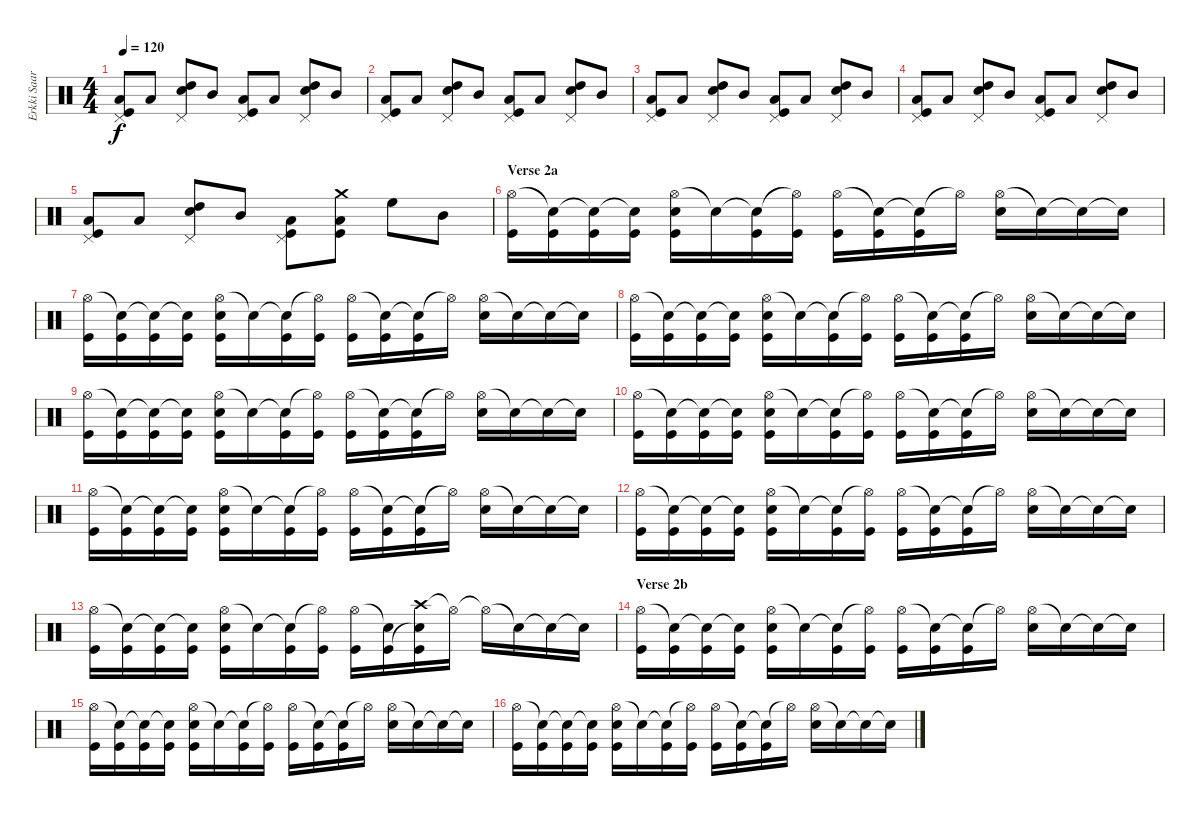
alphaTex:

\track ("Erkki Saarinen" "Erkki Saar") {instrument percussion}
\staff {score}
\articulation defaults
\ts (4 4)
\tempo 120
\clef neutral
\ks c
("Pedal Hi-Hat (hit)" "Low Tom (hit)" "Kick (hit)").8{dy f volume 10} "Low Tom (hit)".8 ("Pedal Hi-Hat (hit)" "High Tom (hit)" "Snare (hit) 2").8 "Mid Tom (hit)".8 ("Pedal Hi-Hat (hit)" "Low Tom (hit)" "Kick (hit)").8 "Low Tom (hit)".8 ("Pedal Hi-Hat (hit)" "High Tom (hit)" "Snare (hit) 2").8 "Mid Tom (hit)".8 |
("Pedal Hi-Hat (hit)" "Low Tom (hit)" "Kick (hit)").8{volume 10} "Low Tom (hit)".8 ("Pedal Hi-Hat (hit)" "High Tom (hit)" "Snare (hit) 2").8 "Mid Tom (hit)".8 ("Pedal Hi-Hat (hit)" "Low Tom (hit)" "Kick (hit)").8 "Low Tom (hit)".8 ("Pedal Hi-Hat (hit)" "High Tom (hit)" "Snare (hit) 2").8 "Mid Tom (hit)".8 |
("Pedal Hi-Hat (hit)" "Low Tom (hit)" "Kick (hit)").8{volume 10} "Low Tom (hit)".8 ("Pedal Hi-Hat (hit)" "High Tom (hit)" "Snare (hit) 2").8 "Mid Tom (hit)".8 ("Pedal Hi-Hat (hit)" "Low Tom (hit)" "Kick (hit)").8 "Low Tom (hit)".8 ("Pedal Hi-Hat (hit)" "High Tom (hit)" "Snare (hit) 2").8 "Mid Tom (hit)".8 |
("Pedal Hi-Hat (hit)" "Low Tom (hit)" "Kick (hit)").8{volume 10} "Low Tom (hit)".8 ("Pedal Hi-Hat (hit)" "High Tom (hit)" "Snare (hit) 2").8 "Mid Tom (hit)".8 ("Pedal Hi-Hat (hit)" "Low Tom (hit)" "Kick (hit)").8 "Low Tom (hit)".8 ("Pedal Hi-Hat (hit)" "High Tom (hit)" "Snare (hit) 2").8 "Mid Tom (hit)".8 |
("Pedal Hi-Hat (hit)" "Low Tom (hit)" "Kick (hit)").8 "Low Tom (hit)".8 ("Pedal Hi-Hat (hit)" "High Tom (hit)" "Snare (hit) 2").8 "Mid Tom (hit)".8 ("Pedal Hi-Hat (hit)" "Low Tom (hit)" "Kick (hit)").8 ("Crash medium (hit)" "Low Tom (hit)" "Kick (hit)").8 "High Floor Tom (hit)".8 "Mid Tom (hit)".8 |
\section ("" "Verse 2a")
("Hi-Hat (open)" "Kick (hit)").16 ("Snare (hit)"{t} "Kick (hit)").16 ("Snare (hit)"{t} "Kick (hit)").16 ("Snare (hit)"{t} "Kick (hit)").16 ("Hi-Hat (open)" "Snare (hit) 2" "Kick (hit)").16 "Snare (hit)"{t}.16 ("Snare (hit)"{t} "Kick (hit)").16 ("Hi-Hat (open)"{t} "Kick (hit)").16 ("Hi-Hat (open)" "Kick (hit)").16 ("Snare (hit)"{t} "Kick (hit)").16 ("Snare (hit)"{t} "Kick (hit)").16 "Hi-Hat (open)"{t}.16 ("Hi-Hat (open)" "Snare (hit) 2").16 "Snare (hit)"{t}.16 "Snare (hit)"{t}.16 "Snare (hit)"{t}.16 |
("Hi-Hat (open)" "Kick (hit)").16 ("Snare (hit)"{t} "Kick (hit)").16 ("Snare (hit)"{t} "Kick (hit)").16 ("Snare (hit)"{t} "Kick (hit)").16 ("Hi-Hat (open)" "Snare (hit) 2" "Kick (hit)").16 "Snare (hit)"{t}.16 ("Snare (hit)"{t} "Kick (hit)").16 ("Hi-Hat (open)"{t} "Kick (hit)").16 ("Hi-Hat (open)" "Kick (hit)").16 ("Snare (hit)"{t} "Kick (hit)").16 ("Snare (hit)"{t} "Kick (hit)").16 "Hi-Hat (open)"{t}.16 ("Hi-Hat (open)" "Snare (hit) 2").16 "Snare (hit)"{t}.16 "Snare (hit)"{t}.16 "Snare (hit)"{t}.16 |
("Hi-Hat (open)" "Kick (hit)").16 ("Snare (hit)"{t} "Kick (hit)").16 ("Snare (hit)"{t} "Kick (hit)").16 ("Snare (hit)"{t} "Kick (hit)").16 ("Hi-Hat (open)" "Snare (hit) 2" "Kick (hit)").16 "Snare (hit)"{t}.16 ("Snare (hit)"{t} "Kick (hit)").16 ("Hi-Hat (open)"{t} "Kick (hit)").16 ("Hi-Hat (open)" "Kick (hit)").16 ("Snare (hit)"{t} "Kick (hit)").16 ("Snare (hit)"{t} "Kick (hit)").16 "Hi-Hat (open)"{t}.16 ("Hi-Hat (open)" "Snare (hit) 2").16 "Snare (hit)"{t}.16 "Snare (hit)"{t}.16 "Snare (hit)"{t}.16 |
("Hi-Hat (open)" "Kick (hit)").16 ("Snare (hit)"{t} "Kick (hit)").16 ("Snare (hit)"{t} "Kick (hit)").16 ("Snare (hit)"{t} "Kick (hit)").16 ("Hi-Hat (open)" "Snare (hit) 2" "Kick (hit)").16 "Snare (hit)"{t}.16 ("Snare (hit)"{t} "Kick (hit)").16 ("Hi-Hat (open)"{t} "Kick (hit)").16 ("Hi-Hat (open)" "Kick (hit)").16 ("Snare (hit)"{t} "Kick (hit)").16 ("Snare (hit)"{t} "Kick (hit)").16 "Hi-Hat (open)"{t}.16 ("Hi-Hat (open)" "Snare (hit) 2").16 "Snare (hit)"{t}.16 "Snare (hit)"{t}.16 "Snare (hit)"{t}.16 |
("Hi-Hat (open)" "Kick (hit)").16 ("Snare (hit)"{t} "Kick (hit)").16 ("Snare (hit)"{t} "Kick (hit)").16 ("Snare (hit)"{t} "Kick (hit)").16 ("Hi-Hat (open)" "Snare (hit) 2" "Kick (hit)").16 "Snare (hit)"{t}.16 ("Snare (hit)"{t} "Kick (hit)").16 ("Hi-Hat (open)"{t} "Kick (hit)").16 ("Hi-Hat (open)" "Kick (hit)").16 ("Snare (hit)"{t} "Kick (hit)").16 ("Snare (hit)"{t} "Kick (hit)").16 "Hi-Hat (open)"{t}.16 ("Hi-Hat (open)" "Snare (hit) 2").16 "Snare (hit)"{t}.16 "Snare (hit)"{t}.16 "Snare (hit)"{t}.16 |
("Hi-Hat (open)" "Kick (hit)").16 ("Snare (hit)"{t} "Kick (hit)").16 ("Snare (hit)"{t} "Kick (hit)").16 ("Snare (hit)"{t} "Kick (hit)").16 ("Hi-Hat (open)" "Snare (hit) 2" "Kick (hit)").16 "Snare (hit)"{t}.16 ("Snare (hit)"{t} "Kick (hit)").16 ("Hi-Hat (open)"{t} "Kick (hit)").16 ("Hi-Hat (open)" "Kick (hit)").16 ("Snare (hit)"{t} "Kick (hit)").16 ("Snare (hit)"{t} "Kick (hit)").16 "Hi-Hat (open)"{t}.16 ("Hi-Hat (open)" "Snare (hit) 2").16 "Snare (hit)"{t}.16 "Snare (hit)"{t}.16 "Snare (hit)"{t}.16 |
("Hi-Hat (open)" "Kick (hit)").16 ("Snare (hit)"{t} "Kick (hit)").16 ("Snare (hit)"{t} "Kick (hit)").16 ("Snare (hit)"{t} "Kick (hit)").16 ("Hi-Hat (open)" "Snare (hit) 2" "Kick (hit)").16 "Snare (hit)"{t}.16 ("Snare (hit)"{t} "Kick (hit)").16 ("Hi-Hat (open)"{t} "Kick (hit)").16 ("Hi-Hat (open)" "Kick (hit)").16 ("Snare (hit)"{t} "Kick (hit)").16 ("Snare (hit)"{t} "Kick (hit)").16 "Hi-Hat (open)"{t}.16 ("Hi-Hat (open)" "Snare (hit) 2").16 "Snare (hit)"{t}.16 "Snare (hit)"{t}.16 "Snare (hit)"{t}.16 |
("Hi-Hat (open)" "Kick (hit)").16 ("Snare (hit)"{t} "Kick (hit)").16 ("Snare (hit)"{t} "Kick (hit)").16 ("Snare (hit)"{t} "Kick (hit)").16 ("Hi-Hat (open)" "Snare (hit) 2" "Kick (hit)").16 "Snare (hit)"{t}.16 ("Snare (hit)"{t} "Kick (hit)").16 ("Hi-Hat (open)"{t} "Kick (hit)").16 ("Hi-Hat (open)" "Kick (hit)").16 ("Snare (hit)"{t} "Kick (hit)").16 ("Crash high (hit)" "Snare (hit)"{t} "Kick (hit)").16 "Hi-Hat (open)"{t}.16 "Hi-Hat (open)"{t}.16 "Snare (hit)"{t}.16 "Snare (hit)"{t}.16 "Snare (hit)"{t}.16 |
\section ("" "Verse 2b")
("Hi-Hat (open)" "Kick (hit)").16 ("Snare (hit)"{t} "Kick (hit)").16 ("Snare (hit)"{t} "Kick (hit)").16 ("Snare (hit)"{t} "Kick (hit)").16 ("Hi-Hat (open)" "Snare (hit) 2" "Kick (hit)").16 "Snare (hit)"{t}.16 ("Snare (hit)"{t} "Kick (hit)").16 ("Hi-Hat (open)"{t} "Kick (hit)").16 ("Hi-Hat (open)" "Kick (hit)").16 ("Snare (hit)"{t} "Kick (hit)").16 ("Snare (hit)"{t} "Kick (hit)").16 "Hi-Hat (open)"{t}.16 ("Hi-Hat (open)" "Snare (hit) 2").16 "Snare (hit)"{t}.16 "Snare (hit)"{t}.16 "Snare (hit)"{t}.16 |
("Hi-Hat (open)" "Kick (hit)").16 ("Snare (hit)"{t} "Kick (hit)").16 ("Snare (hit)"{t} "Kick (hit)").16 ("Snare (hit)"{t} "Kick (hit)").16 ("Hi-Hat (open)" "Snare (hit) 2" "Kick (hit)").16 "Snare (hit)"{t}.16 ("Snare (hit)"{t} "Kick (hit)").16 ("Hi-Hat (open)"{t} "Kick (hit)").16 ("Hi-Hat (open)" "Kick (hit)").16 ("Snare (hit)"{t} "Kick (hit)").16 ("Snare (hit)"{t} "Kick (hit)").16 "Hi-Hat (open)"{t}.16 ("Hi-Hat (open)" "Snare (hit) 2").16 "Snare (hit)"{t}.16 "Snare (hit)"{t}.16 "Snare (hit)"{t}.16 |
("Hi-Hat (open)" "Kick (hit)").16 ("Snare (hit)"{t} "Kick (hit)").16 ("Snare (hit)"{t} "Kick (hit)").16 ("Snare (hit)"{t} "Kick (hit)").16 ("Hi-Hat (open)" "Snare (hit) 2" "Kick (hit)").16 "Snare (hit)"{t}.16 ("Snare (hit)"{t} "Kick (hit)").16 ("Hi-Hat (open)"{t} "Kick (hit)").16 ("Hi-Hat (open)" "Kick (hit)").16 ("Snare (hit)"{t} "Kick (hit)").16 ("Snare (hit)"{t} "Kick (hit)").16 "Hi-Hat (open)"{t}.16 ("Hi-Hat (open)" "Snare (hit) 2").16 "Snare (hit)"{t}.16 "Snare (hit)"{t}.16 "Snare (hit)"{t}.16
